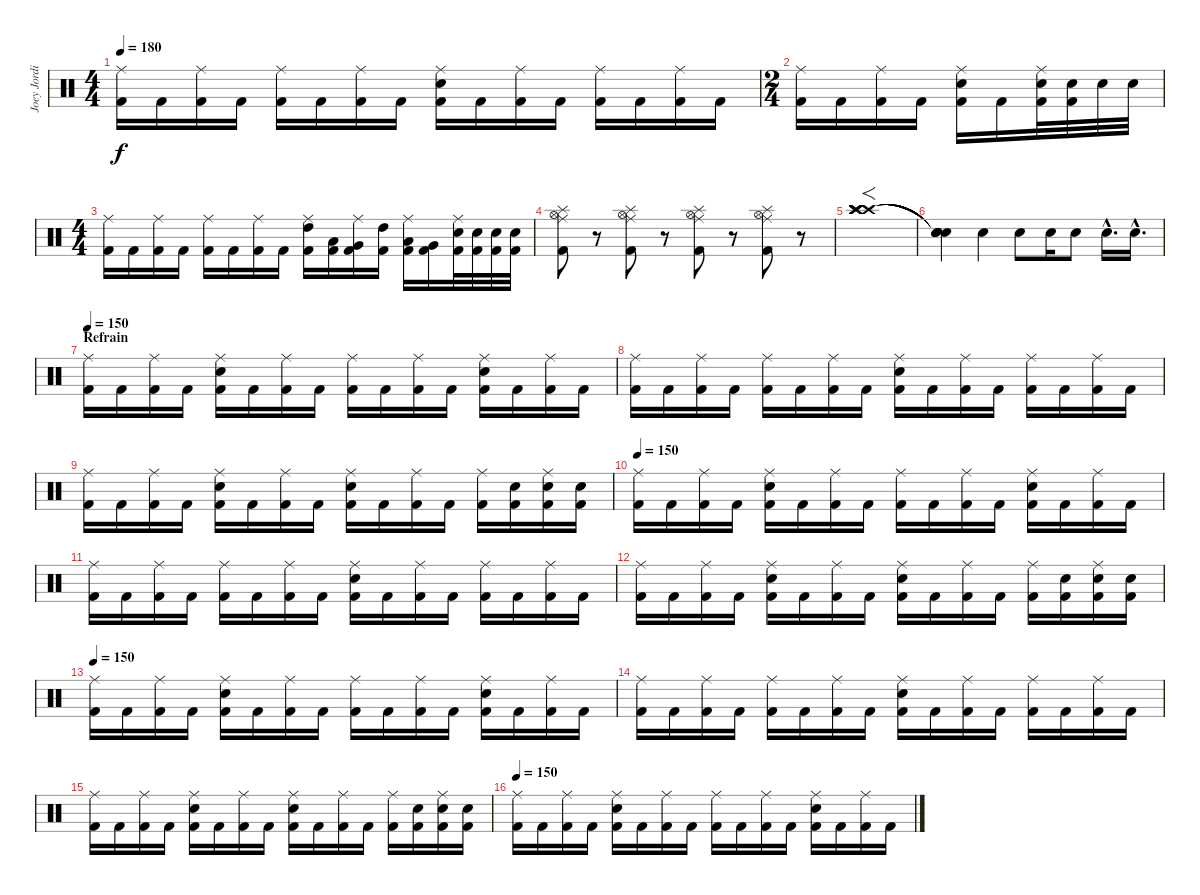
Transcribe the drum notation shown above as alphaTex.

\track ("Joey Jordison" "Joey Jordi") {instrument percussion}
\staff {score}
\articulation defaults
\ts (4 4)
\tempo 180
\clef neutral
\ks c
("Ride (middle)" "Kick (hit) 2").16{dy f} "Kick (hit) 2".16 ("Ride (middle)" "Kick (hit) 2").16 "Kick (hit) 2".16 ("Ride (middle)" "Kick (hit) 2").16 "Kick (hit) 2".16 ("Ride (middle)" "Kick (hit) 2").16 "Kick (hit) 2".16 ("Ride (middle)" "Electric Snare (hit)" "Kick (hit) 2").16 "Kick (hit) 2".16 ("Ride (middle)" "Kick (hit) 2").16 "Kick (hit) 2".16 ("Ride (middle)" "Kick (hit) 2").16 "Kick (hit) 2".16 ("Ride (middle)" "Kick (hit) 2").16 "Kick (hit) 2".16 |
\ts (2 4)
("Ride (middle)" "Kick (hit) 2").16 "Kick (hit) 2".16 ("Ride (middle)" "Kick (hit) 2").16 "Kick (hit) 2".16 ("Ride (middle)" "Electric Snare (hit)" "Kick (hit) 2").16 "Kick (hit) 2".16 ("Ride (middle)" "Electric Snare (hit)" "Kick (hit) 2").32 ("Electric Snare (hit)" "Kick (hit) 2").32 "Electric Snare (hit)".32 "Electric Snare (hit)".32 |
\ts (4 4)
("Ride (middle)" "Kick (hit) 2").16 "Kick (hit) 2".16 ("Ride (middle)" "Kick (hit) 2").16 "Kick (hit) 2".16 ("Ride (middle)" "Kick (hit) 2").16 "Kick (hit) 2".16 ("Ride (middle)" "Kick (hit) 2").16 "Kick (hit) 2".16 ("Ride (middle)" "High Tom (hit)" "Kick (hit) 2").16 ("Low Tom (hit)" "Kick (hit) 2").16 ("Ride (middle)" "Very Low Tom (hit)" "Kick (hit) 2").16 ("High Tom (hit)" "Kick (hit) 2").16 ("Ride (middle)" "Low Tom (hit)" "Kick (hit) 2").16 ("Very Low Tom (hit)" "Kick (hit) 2").16 ("Ride (middle)" "Electric Snare (hit)" "Kick (hit) 2").32 ("Electric Snare (hit)" "Kick (hit) 2").32 ("Electric Snare (hit)" "Kick (hit) 2").32 ("Electric Snare (hit)" "Kick (hit) 2").32 |
("Splash (hit)" "Hi-Hat (open)" "Ride (middle)" "Kick (hit) 2").8 r.8 ("Splash (hit)" "Hi-Hat (open)" "Ride (middle)" "Kick (hit) 2").8 r.8 ("Splash (hit)" "Hi-Hat (open)" "Ride (middle)" "Kick (hit) 2").8 r.8 ("Splash (hit)" "Hi-Hat (open)" "Ride (middle)" "Kick (hit) 2").8 r.8 |
("Crash high (hit)" "Crash high (hit)" "Crash high (hit)" "Crash high (hit)" "Crash high (hit)").1{f} |
("Snare (hit)"{t} "Snare (hit)"{t} "Snare (hit)"{t} "Snare (hit)"{t} "Snare (hit)"{t}).4 "Electric Snare (hit)".4 "Electric Snare (hit)".8 "Electric Snare (hit)".16 "Electric Snare (hit)".8 "Electric Snare (hit)"{hac}.16{d} "Electric Snare (hit)"{hac}.16{d} |
\section ("" "Refrain")
\tempo 150
("Ride (middle)" "Kick (hit) 2").16 "Kick (hit) 2".16 ("Ride (middle)" "Kick (hit) 2").16 "Kick (hit) 2".16 ("Ride (middle)" "Electric Snare (hit)" "Kick (hit) 2").16 "Kick (hit) 2".16 ("Ride (middle)" "Kick (hit) 2").16 "Kick (hit) 2".16 ("Ride (middle)" "Kick (hit) 2").16 "Kick (hit) 2".16 ("Ride (middle)" "Kick (hit) 2").16 "Kick (hit) 2".16 ("Ride (middle)" "Electric Snare (hit)" "Kick (hit) 2").16 "Kick (hit) 2".16 ("Ride (middle)" "Kick (hit) 2").16 "Kick (hit) 2".16 |
("Ride (middle)" "Kick (hit) 2").16 "Kick (hit) 2".16 ("Ride (middle)" "Kick (hit) 2").16 "Kick (hit) 2".16 ("Ride (middle)" "Kick (hit) 2").16 "Kick (hit) 2".16 ("Ride (middle)" "Kick (hit) 2").16 "Kick (hit) 2".16 ("Ride (middle)" "Electric Snare (hit)" "Kick (hit) 2").16 "Kick (hit) 2".16 ("Ride (middle)" "Kick (hit) 2").16 "Kick (hit) 2".16 ("Ride (middle)" "Kick (hit) 2").16 "Kick (hit) 2".16 ("Ride (middle)" "Kick (hit) 2").16 "Kick (hit) 2".16 |
("Ride (middle)" "Kick (hit) 2").16 "Kick (hit) 2".16 ("Ride (middle)" "Kick (hit) 2").16 "Kick (hit) 2".16 ("Ride (middle)" "Electric Snare (hit)" "Kick (hit) 2").16 "Kick (hit) 2".16 ("Ride (middle)" "Kick (hit) 2").16 "Kick (hit) 2".16 ("Ride (middle)" "Electric Snare (hit)" "Kick (hit) 2").16 "Kick (hit) 2".16 ("Ride (middle)" "Kick (hit) 2").16 "Kick (hit) 2".16 ("Ride (middle)" "Kick (hit) 2").16 ("Electric Snare (hit)" "Kick (hit) 2").16 ("Ride (middle)" "Electric Snare (hit)" "Kick (hit) 2").16 ("Electric Snare (hit)" "Kick (hit) 2").16 |
\tempo 150
("Ride (middle)" "Kick (hit) 2").16 "Kick (hit) 2".16 ("Ride (middle)" "Kick (hit) 2").16 "Kick (hit) 2".16 ("Ride (middle)" "Electric Snare (hit)" "Kick (hit) 2").16 "Kick (hit) 2".16 ("Ride (middle)" "Kick (hit) 2").16 "Kick (hit) 2".16 ("Ride (middle)" "Kick (hit) 2").16 "Kick (hit) 2".16 ("Ride (middle)" "Kick (hit) 2").16 "Kick (hit) 2".16 ("Ride (middle)" "Electric Snare (hit)" "Kick (hit) 2").16 "Kick (hit) 2".16 ("Ride (middle)" "Kick (hit) 2").16 "Kick (hit) 2".16 |
("Ride (middle)" "Kick (hit) 2").16 "Kick (hit) 2".16 ("Ride (middle)" "Kick (hit) 2").16 "Kick (hit) 2".16 ("Ride (middle)" "Kick (hit) 2").16 "Kick (hit) 2".16 ("Ride (middle)" "Kick (hit) 2").16 "Kick (hit) 2".16 ("Ride (middle)" "Electric Snare (hit)" "Kick (hit) 2").16 "Kick (hit) 2".16 ("Ride (middle)" "Kick (hit) 2").16 "Kick (hit) 2".16 ("Ride (middle)" "Kick (hit) 2").16 "Kick (hit) 2".16 ("Ride (middle)" "Kick (hit) 2").16 "Kick (hit) 2".16 |
("Ride (middle)" "Kick (hit) 2").16 "Kick (hit) 2".16 ("Ride (middle)" "Kick (hit) 2").16 "Kick (hit) 2".16 ("Ride (middle)" "Electric Snare (hit)" "Kick (hit) 2").16 "Kick (hit) 2".16 ("Ride (middle)" "Kick (hit) 2").16 "Kick (hit) 2".16 ("Ride (middle)" "Electric Snare (hit)" "Kick (hit) 2").16 "Kick (hit) 2".16 ("Ride (middle)" "Kick (hit) 2").16 "Kick (hit) 2".16 ("Ride (middle)" "Kick (hit) 2").16 ("Electric Snare (hit)" "Kick (hit) 2").16 ("Ride (middle)" "Electric Snare (hit)" "Kick (hit) 2").16 ("Electric Snare (hit)" "Kick (hit) 2").16 |
\tempo 150
("Ride (middle)" "Kick (hit) 2").16 "Kick (hit) 2".16 ("Ride (middle)" "Kick (hit) 2").16 "Kick (hit) 2".16 ("Ride (middle)" "Electric Snare (hit)" "Kick (hit) 2").16 "Kick (hit) 2".16 ("Ride (middle)" "Kick (hit) 2").16 "Kick (hit) 2".16 ("Ride (middle)" "Kick (hit) 2").16 "Kick (hit) 2".16 ("Ride (middle)" "Kick (hit) 2").16 "Kick (hit) 2".16 ("Ride (middle)" "Electric Snare (hit)" "Kick (hit) 2").16 "Kick (hit) 2".16 ("Ride (middle)" "Kick (hit) 2").16 "Kick (hit) 2".16 |
("Ride (middle)" "Kick (hit) 2").16 "Kick (hit) 2".16 ("Ride (middle)" "Kick (hit) 2").16 "Kick (hit) 2".16 ("Ride (middle)" "Kick (hit) 2").16 "Kick (hit) 2".16 ("Ride (middle)" "Kick (hit) 2").16 "Kick (hit) 2".16 ("Ride (middle)" "Electric Snare (hit)" "Kick (hit) 2").16 "Kick (hit) 2".16 ("Ride (middle)" "Kick (hit) 2").16 "Kick (hit) 2".16 ("Ride (middle)" "Kick (hit) 2").16 "Kick (hit) 2".16 ("Ride (middle)" "Kick (hit) 2").16 "Kick (hit) 2".16 |
("Ride (middle)" "Kick (hit) 2").16 "Kick (hit) 2".16 ("Ride (middle)" "Kick (hit) 2").16 "Kick (hit) 2".16 ("Ride (middle)" "Electric Snare (hit)" "Kick (hit) 2").16 "Kick (hit) 2".16 ("Ride (middle)" "Kick (hit) 2").16 "Kick (hit) 2".16 ("Ride (middle)" "Electric Snare (hit)" "Kick (hit) 2").16 "Kick (hit) 2".16 ("Ride (middle)" "Kick (hit) 2").16 "Kick (hit) 2".16 ("Ride (middle)" "Kick (hit) 2").16 ("Electric Snare (hit)" "Kick (hit) 2").16 ("Ride (middle)" "Electric Snare (hit)" "Kick (hit) 2").16 ("Electric Snare (hit)" "Kick (hit) 2").16 |
\tempo 150
("Ride (middle)" "Kick (hit) 2").16 "Kick (hit) 2".16 ("Ride (middle)" "Kick (hit) 2").16 "Kick (hit) 2".16 ("Ride (middle)" "Electric Snare (hit)" "Kick (hit) 2").16 "Kick (hit) 2".16 ("Ride (middle)" "Kick (hit) 2").16 "Kick (hit) 2".16 ("Ride (middle)" "Kick (hit) 2").16 "Kick (hit) 2".16 ("Ride (middle)" "Kick (hit) 2").16 "Kick (hit) 2".16 ("Ride (middle)" "Electric Snare (hit)" "Kick (hit) 2").16 "Kick (hit) 2".16 ("Ride (middle)" "Kick (hit) 2").16 "Kick (hit) 2".16
